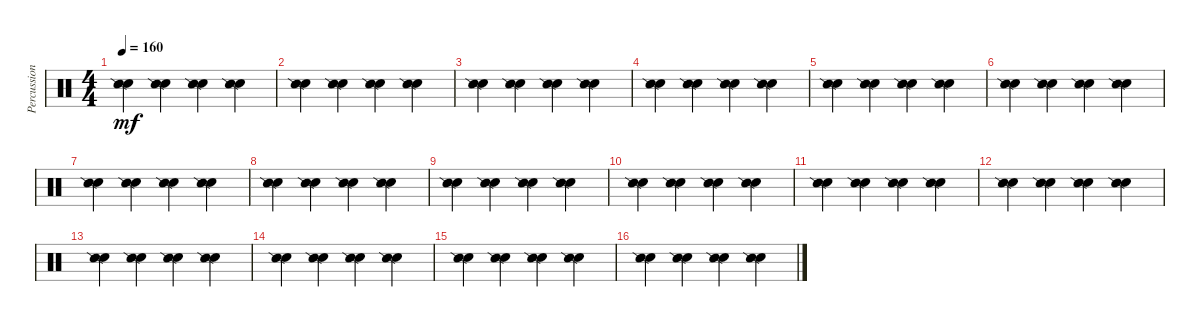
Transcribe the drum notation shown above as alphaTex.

\track ("Percussion 2" "Percussion") {instrument percussion}
\staff {score}
\articulation defaults
\ts (4 4)
\tempo 160
\clef neutral
\ks c
("Hand Clap (hit)" "Snare (side stick) 2").4{dy mf} ("Hand Clap (hit)" "Snare (side stick) 2").4 ("Hand Clap (hit)" "Snare (side stick) 2").4 ("Hand Clap (hit)" "Snare (side stick) 2").4 |
("Hand Clap (hit)" "Snare (side stick) 2").4 ("Hand Clap (hit)" "Snare (side stick) 2").4 ("Hand Clap (hit)" "Snare (side stick) 2").4 ("Hand Clap (hit)" "Snare (side stick) 2").4 |
("Hand Clap (hit)" "Snare (side stick) 2").4 ("Hand Clap (hit)" "Snare (side stick) 2").4 ("Hand Clap (hit)" "Snare (side stick) 2").4 ("Hand Clap (hit)" "Snare (side stick) 2").4 |
("Hand Clap (hit)" "Snare (side stick) 2").4 ("Hand Clap (hit)" "Snare (side stick) 2").4 ("Hand Clap (hit)" "Snare (side stick) 2").4 ("Hand Clap (hit)" "Snare (side stick) 2").4 |
("Hand Clap (hit)" "Snare (side stick) 2").4 ("Hand Clap (hit)" "Snare (side stick) 2").4 ("Hand Clap (hit)" "Snare (side stick) 2").4 ("Hand Clap (hit)" "Snare (side stick) 2").4 |
("Hand Clap (hit)" "Snare (side stick) 2").4 ("Hand Clap (hit)" "Snare (side stick) 2").4 ("Hand Clap (hit)" "Snare (side stick) 2").4 ("Hand Clap (hit)" "Snare (side stick) 2").4 |
("Hand Clap (hit)" "Snare (side stick) 2").4 ("Hand Clap (hit)" "Snare (side stick) 2").4 ("Hand Clap (hit)" "Snare (side stick) 2").4 ("Hand Clap (hit)" "Snare (side stick) 2").4 |
("Hand Clap (hit)" "Snare (side stick) 2").4 ("Hand Clap (hit)" "Snare (side stick) 2").4 ("Hand Clap (hit)" "Snare (side stick) 2").4 ("Hand Clap (hit)" "Snare (side stick) 2").4 |
("Hand Clap (hit)" "Snare (side stick) 2").4 ("Hand Clap (hit)" "Snare (side stick) 2").4 ("Hand Clap (hit)" "Snare (side stick) 2").4 ("Hand Clap (hit)" "Snare (side stick) 2").4 |
("Hand Clap (hit)" "Snare (side stick) 2").4 ("Hand Clap (hit)" "Snare (side stick) 2").4 ("Hand Clap (hit)" "Snare (side stick) 2").4 ("Hand Clap (hit)" "Snare (side stick) 2").4 |
("Hand Clap (hit)" "Snare (side stick) 2").4 ("Hand Clap (hit)" "Snare (side stick) 2").4 ("Hand Clap (hit)" "Snare (side stick) 2").4 ("Hand Clap (hit)" "Snare (side stick) 2").4 |
("Hand Clap (hit)" "Snare (side stick) 2").4 ("Hand Clap (hit)" "Snare (side stick) 2").4 ("Hand Clap (hit)" "Snare (side stick) 2").4 ("Hand Clap (hit)" "Snare (side stick) 2").4 |
("Hand Clap (hit)" "Snare (side stick) 2").4 ("Hand Clap (hit)" "Snare (side stick) 2").4 ("Hand Clap (hit)" "Snare (side stick) 2").4 ("Hand Clap (hit)" "Snare (side stick) 2").4 |
("Hand Clap (hit)" "Snare (side stick) 2").4 ("Hand Clap (hit)" "Snare (side stick) 2").4 ("Hand Clap (hit)" "Snare (side stick) 2").4 ("Hand Clap (hit)" "Snare (side stick) 2").4 |
("Hand Clap (hit)" "Snare (side stick) 2").4 ("Hand Clap (hit)" "Snare (side stick) 2").4 ("Hand Clap (hit)" "Snare (side stick) 2").4 ("Hand Clap (hit)" "Snare (side stick) 2").4 |
("Hand Clap (hit)" "Snare (side stick) 2").4 ("Hand Clap (hit)" "Snare (side stick) 2").4 ("Hand Clap (hit)" "Snare (side stick) 2").4 ("Hand Clap (hit)" "Snare (side stick) 2").4
